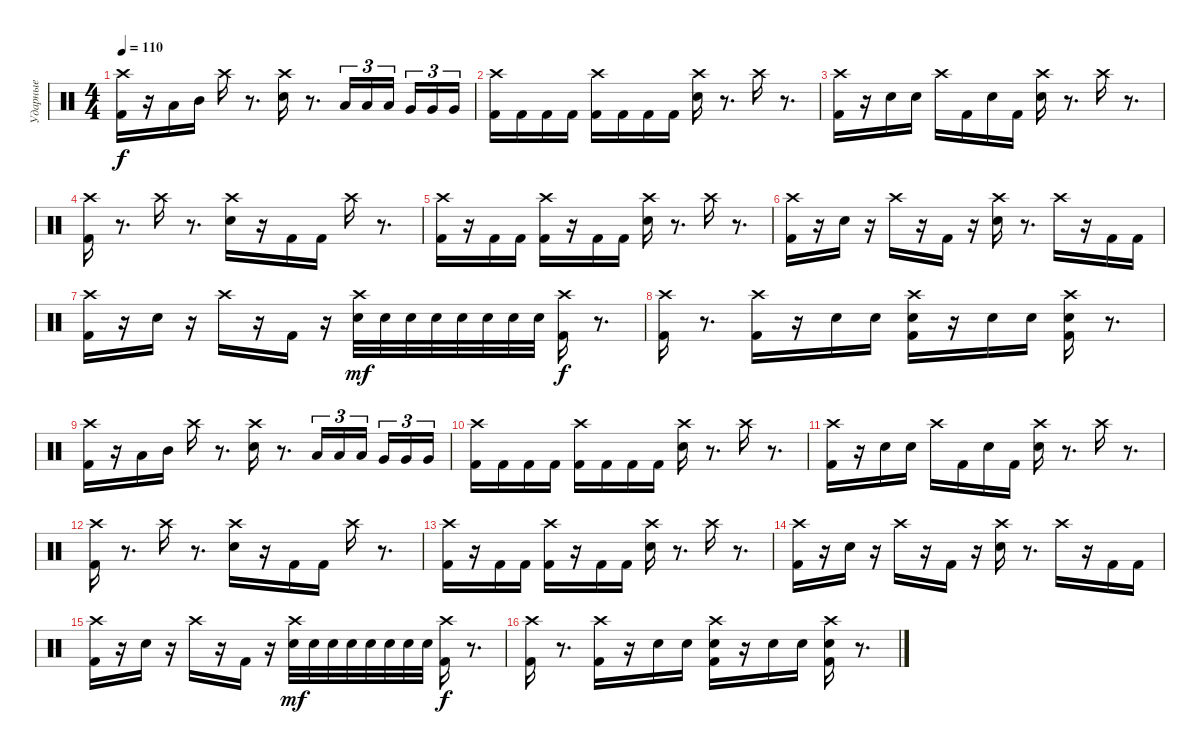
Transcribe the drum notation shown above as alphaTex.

\track ("Ударные" "Ударные") {instrument percussion}
\staff {score}
\articulation defaults
\ts (4 4)
\tempo 110
\clef neutral
\ks c
("Crash high (hit)" "Kick (hit) 2").16{dy f} r.16 "Low Tom (hit)".16 "Mid Tom (hit)".16 "Crash high (hit)".16 r.8{d} ("Crash high (hit)" "Electric Snare (hit)").16 r.8{d} "Low Tom (hit)".16{tu (3 2)} "Low Tom (hit)".16{tu (3 2)} "Low Tom (hit)".16{tu (3 2) beam splitsecondary} "Very Low Tom (hit)".16{tu (3 2)} "Very Low Tom (hit)".16{tu (3 2)} "Very Low Tom (hit)".16{tu (3 2)} |
("Crash high (hit)" "Kick (hit) 2").16 "Kick (hit) 2".16 "Kick (hit) 2".16 "Kick (hit) 2".16 ("Crash high (hit)" "Kick (hit) 2").16 "Kick (hit) 2".16 "Kick (hit) 2".16 "Kick (hit) 2".16 ("Crash high (hit)" "Electric Snare (hit)").16 r.8{d} "Crash high (hit)".16 r.8{d} |
("Crash high (hit)" "Kick (hit) 2").16 r.16 "Electric Snare (hit)".16 "Electric Snare (hit)".16 "Crash high (hit)".16 "Kick (hit) 2".16 "Electric Snare (hit)".16 "Kick (hit) 2".16 ("Crash high (hit)" "Electric Snare (hit)").16 r.8{d} "Crash high (hit)".16 r.8{d} |
("Crash high (hit)" "Kick (hit) 2").16 r.8{d} "Crash high (hit)".16 r.8{d} ("Crash high (hit)" "Electric Snare (hit)").16 r.16 "Kick (hit) 2".16 "Kick (hit) 2".16 "Crash high (hit)".16 r.8{d} |
("Crash high (hit)" "Kick (hit) 2").16 r.16 "Kick (hit) 2".16 "Kick (hit) 2".16 ("Crash high (hit)" "Kick (hit) 2").16 r.16 "Kick (hit) 2".16 "Kick (hit) 2".16 ("Crash high (hit)" "Electric Snare (hit)").16 r.8{d} "Crash high (hit)".16 r.8{d} |
("Crash high (hit)" "Kick (hit) 2").16 r.16 "Electric Snare (hit)".16 r.16 "Crash high (hit)".16 r.16 "Kick (hit) 2".16 r.16 ("Crash high (hit)" "Electric Snare (hit)").16 r.8{d} "Crash high (hit)".16 r.16 "Kick (hit) 2".16 "Kick (hit) 2".16 |
("Crash high (hit)" "Kick (hit) 2").16 r.16 "Electric Snare (hit)".16 r.16 "Crash high (hit)".16 r.16 "Kick (hit) 2".16 r.16 ("Crash high (hit)" "Electric Snare (hit)").32{dy mf} "Electric Snare (hit)".32 "Electric Snare (hit)".32 "Electric Snare (hit)".32 "Electric Snare (hit)".32 "Electric Snare (hit)".32 "Electric Snare (hit)".32 "Electric Snare (hit)".32 ("Crash high (hit)" "Kick (hit) 2").16{dy f} r.8{d} |
("Crash high (hit)" "Kick (hit) 2").16 r.8{d} ("Crash high (hit)" "Kick (hit) 2").16 r.16 "Electric Snare (hit)".16 "Electric Snare (hit)".16 ("Crash high (hit)" "Electric Snare (hit)" "Kick (hit) 2").16 r.16 "Electric Snare (hit)".16 "Electric Snare (hit)".16 ("Crash high (hit)" "Electric Snare (hit)" "Kick (hit) 2").16 r.8{d} |
("Crash high (hit)" "Kick (hit) 2").16 r.16 "Low Tom (hit)".16 "Mid Tom (hit)".16 "Crash high (hit)".16 r.8{d} ("Crash high (hit)" "Electric Snare (hit)").16 r.8{d} "Low Tom (hit)".16{tu (3 2)} "Low Tom (hit)".16{tu (3 2)} "Low Tom (hit)".16{tu (3 2) beam splitsecondary} "Very Low Tom (hit)".16{tu (3 2)} "Very Low Tom (hit)".16{tu (3 2)} "Very Low Tom (hit)".16{tu (3 2)} |
("Crash high (hit)" "Kick (hit) 2").16 "Kick (hit) 2".16 "Kick (hit) 2".16 "Kick (hit) 2".16 ("Crash high (hit)" "Kick (hit) 2").16 "Kick (hit) 2".16 "Kick (hit) 2".16 "Kick (hit) 2".16 ("Crash high (hit)" "Electric Snare (hit)").16 r.8{d} "Crash high (hit)".16 r.8{d} |
("Crash high (hit)" "Kick (hit) 2").16 r.16 "Electric Snare (hit)".16 "Electric Snare (hit)".16 "Crash high (hit)".16 "Kick (hit) 2".16 "Electric Snare (hit)".16 "Kick (hit) 2".16 ("Crash high (hit)" "Electric Snare (hit)").16 r.8{d} "Crash high (hit)".16 r.8{d} |
("Crash high (hit)" "Kick (hit) 2").16 r.8{d} "Crash high (hit)".16 r.8{d} ("Crash high (hit)" "Electric Snare (hit)").16 r.16 "Kick (hit) 2".16 "Kick (hit) 2".16 "Crash high (hit)".16 r.8{d} |
("Crash high (hit)" "Kick (hit) 2").16 r.16 "Kick (hit) 2".16 "Kick (hit) 2".16 ("Crash high (hit)" "Kick (hit) 2").16 r.16 "Kick (hit) 2".16 "Kick (hit) 2".16 ("Crash high (hit)" "Electric Snare (hit)").16 r.8{d} "Crash high (hit)".16 r.8{d} |
("Crash high (hit)" "Kick (hit) 2").16 r.16 "Electric Snare (hit)".16 r.16 "Crash high (hit)".16 r.16 "Kick (hit) 2".16 r.16 ("Crash high (hit)" "Electric Snare (hit)").16 r.8{d} "Crash high (hit)".16 r.16 "Kick (hit) 2".16 "Kick (hit) 2".16 |
("Crash high (hit)" "Kick (hit) 2").16 r.16 "Electric Snare (hit)".16 r.16 "Crash high (hit)".16 r.16 "Kick (hit) 2".16 r.16 ("Crash high (hit)" "Electric Snare (hit)").32{dy mf} "Electric Snare (hit)".32 "Electric Snare (hit)".32 "Electric Snare (hit)".32 "Electric Snare (hit)".32 "Electric Snare (hit)".32 "Electric Snare (hit)".32 "Electric Snare (hit)".32 ("Crash high (hit)" "Kick (hit) 2").16{dy f} r.8{d} |
("Crash high (hit)" "Kick (hit) 2").16 r.8{d} ("Crash high (hit)" "Kick (hit) 2").16 r.16 "Electric Snare (hit)".16 "Electric Snare (hit)".16 ("Crash high (hit)" "Electric Snare (hit)" "Kick (hit) 2").16 r.16 "Electric Snare (hit)".16 "Electric Snare (hit)".16 ("Crash high (hit)" "Electric Snare (hit)" "Kick (hit) 2").16 r.8{d}
